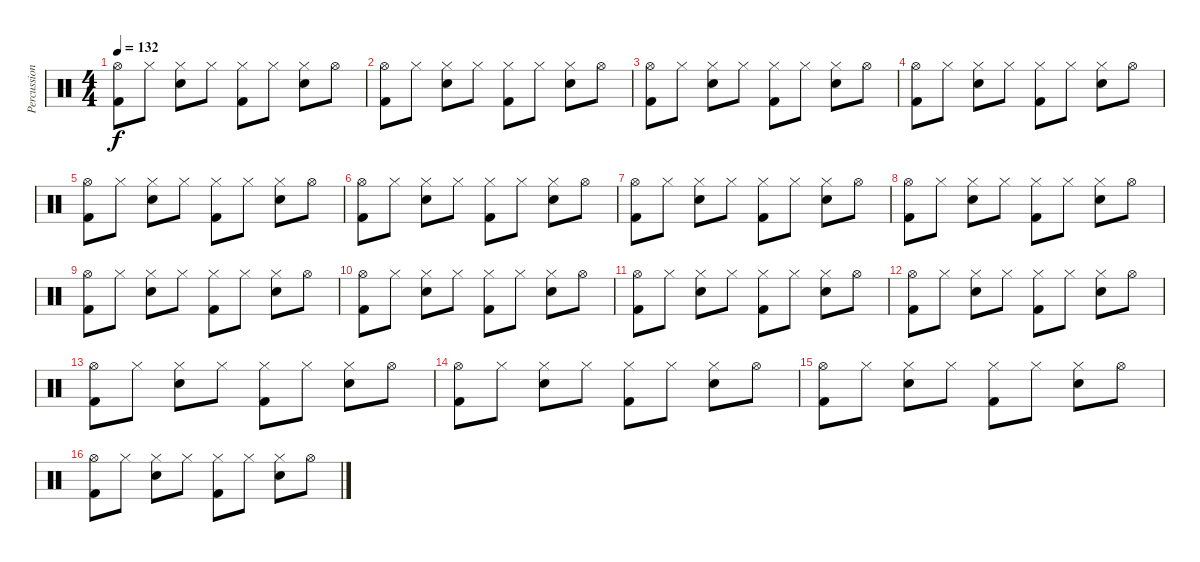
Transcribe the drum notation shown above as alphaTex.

\track ("Percussions" "Percussion") {instrument percussion}
\staff {score}
\articulation defaults
\ts (4 4)
\tempo 132
\clef neutral
\ks c
("Hi-Hat (open)" "Kick (hit) 2").8{dy f} "Hi-Hat (closed)".8 ("Hi-Hat (closed)" "Snare (hit) 2").8 "Hi-Hat (closed)".8 ("Hi-Hat (closed)" "Kick (hit) 2").8 "Hi-Hat (closed)".8 ("Hi-Hat (closed)" "Snare (hit) 2").8 "Hi-Hat (open)".8 |
("Hi-Hat (open)" "Kick (hit) 2").8 "Hi-Hat (closed)".8 ("Hi-Hat (closed)" "Snare (hit) 2").8 "Hi-Hat (closed)".8 ("Hi-Hat (closed)" "Kick (hit) 2").8 "Hi-Hat (closed)".8 ("Hi-Hat (closed)" "Snare (hit) 2").8 "Hi-Hat (open)".8 |
("Hi-Hat (open)" "Kick (hit) 2").8 "Hi-Hat (closed)".8 ("Hi-Hat (closed)" "Snare (hit) 2").8 "Hi-Hat (closed)".8 ("Hi-Hat (closed)" "Kick (hit) 2").8 "Hi-Hat (closed)".8 ("Hi-Hat (closed)" "Snare (hit) 2").8 "Hi-Hat (open)".8 |
("Hi-Hat (open)" "Kick (hit) 2").8 "Hi-Hat (closed)".8 ("Hi-Hat (closed)" "Snare (hit) 2").8 "Hi-Hat (closed)".8 ("Hi-Hat (closed)" "Kick (hit) 2").8 "Hi-Hat (closed)".8 ("Hi-Hat (closed)" "Snare (hit) 2").8 "Hi-Hat (open)".8 |
("Hi-Hat (open)" "Kick (hit) 2").8 "Hi-Hat (closed)".8 ("Hi-Hat (closed)" "Snare (hit) 2").8 "Hi-Hat (closed)".8 ("Hi-Hat (closed)" "Kick (hit) 2").8 "Hi-Hat (closed)".8 ("Hi-Hat (closed)" "Snare (hit) 2").8 "Hi-Hat (open)".8 |
("Hi-Hat (open)" "Kick (hit) 2").8 "Hi-Hat (closed)".8 ("Hi-Hat (closed)" "Snare (hit) 2").8 "Hi-Hat (closed)".8 ("Hi-Hat (closed)" "Kick (hit) 2").8 "Hi-Hat (closed)".8 ("Hi-Hat (closed)" "Snare (hit) 2").8 "Hi-Hat (open)".8 |
("Hi-Hat (open)" "Kick (hit) 2").8 "Hi-Hat (closed)".8 ("Hi-Hat (closed)" "Snare (hit) 2").8 "Hi-Hat (closed)".8 ("Hi-Hat (closed)" "Kick (hit) 2").8 "Hi-Hat (closed)".8 ("Hi-Hat (closed)" "Snare (hit) 2").8 "Hi-Hat (open)".8 |
("Hi-Hat (open)" "Kick (hit) 2").8 "Hi-Hat (closed)".8 ("Hi-Hat (closed)" "Snare (hit) 2").8 "Hi-Hat (closed)".8 ("Hi-Hat (closed)" "Kick (hit) 2").8 "Hi-Hat (closed)".8 ("Hi-Hat (closed)" "Snare (hit) 2").8 "Hi-Hat (open)".8 |
("Hi-Hat (open)" "Kick (hit) 2").8 "Hi-Hat (closed)".8 ("Hi-Hat (closed)" "Snare (hit) 2").8 "Hi-Hat (closed)".8 ("Hi-Hat (closed)" "Kick (hit) 2").8 "Hi-Hat (closed)".8 ("Hi-Hat (closed)" "Snare (hit) 2").8 "Hi-Hat (open)".8 |
("Hi-Hat (open)" "Kick (hit) 2").8 "Hi-Hat (closed)".8 ("Hi-Hat (closed)" "Snare (hit) 2").8 "Hi-Hat (closed)".8 ("Hi-Hat (closed)" "Kick (hit) 2").8 "Hi-Hat (closed)".8 ("Hi-Hat (closed)" "Snare (hit) 2").8 "Hi-Hat (open)".8 |
("Hi-Hat (open)" "Kick (hit) 2").8 "Hi-Hat (closed)".8 ("Hi-Hat (closed)" "Snare (hit) 2").8 "Hi-Hat (closed)".8 ("Hi-Hat (closed)" "Kick (hit) 2").8 "Hi-Hat (closed)".8 ("Hi-Hat (closed)" "Snare (hit) 2").8 "Hi-Hat (open)".8 |
("Hi-Hat (open)" "Kick (hit) 2").8 "Hi-Hat (closed)".8 ("Hi-Hat (closed)" "Snare (hit) 2").8 "Hi-Hat (closed)".8 ("Hi-Hat (closed)" "Kick (hit) 2").8 "Hi-Hat (closed)".8 ("Hi-Hat (closed)" "Snare (hit) 2").8 "Hi-Hat (open)".8 |
("Hi-Hat (open)" "Kick (hit) 2").8 "Hi-Hat (closed)".8 ("Hi-Hat (closed)" "Snare (hit) 2").8 "Hi-Hat (closed)".8 ("Hi-Hat (closed)" "Kick (hit) 2").8 "Hi-Hat (closed)".8 ("Hi-Hat (closed)" "Snare (hit) 2").8 "Hi-Hat (open)".8 |
("Hi-Hat (open)" "Kick (hit) 2").8 "Hi-Hat (closed)".8 ("Hi-Hat (closed)" "Snare (hit) 2").8 "Hi-Hat (closed)".8 ("Hi-Hat (closed)" "Kick (hit) 2").8 "Hi-Hat (closed)".8 ("Hi-Hat (closed)" "Snare (hit) 2").8 "Hi-Hat (open)".8 |
("Hi-Hat (open)" "Kick (hit) 2").8 "Hi-Hat (closed)".8 ("Hi-Hat (closed)" "Snare (hit) 2").8 "Hi-Hat (closed)".8 ("Hi-Hat (closed)" "Kick (hit) 2").8 "Hi-Hat (closed)".8 ("Hi-Hat (closed)" "Snare (hit) 2").8 "Hi-Hat (open)".8 |
("Hi-Hat (open)" "Kick (hit) 2").8 "Hi-Hat (closed)".8 ("Hi-Hat (closed)" "Snare (hit) 2").8 "Hi-Hat (closed)".8 ("Hi-Hat (closed)" "Kick (hit) 2").8 "Hi-Hat (closed)".8 ("Hi-Hat (closed)" "Snare (hit) 2").8 "Hi-Hat (open)".8
